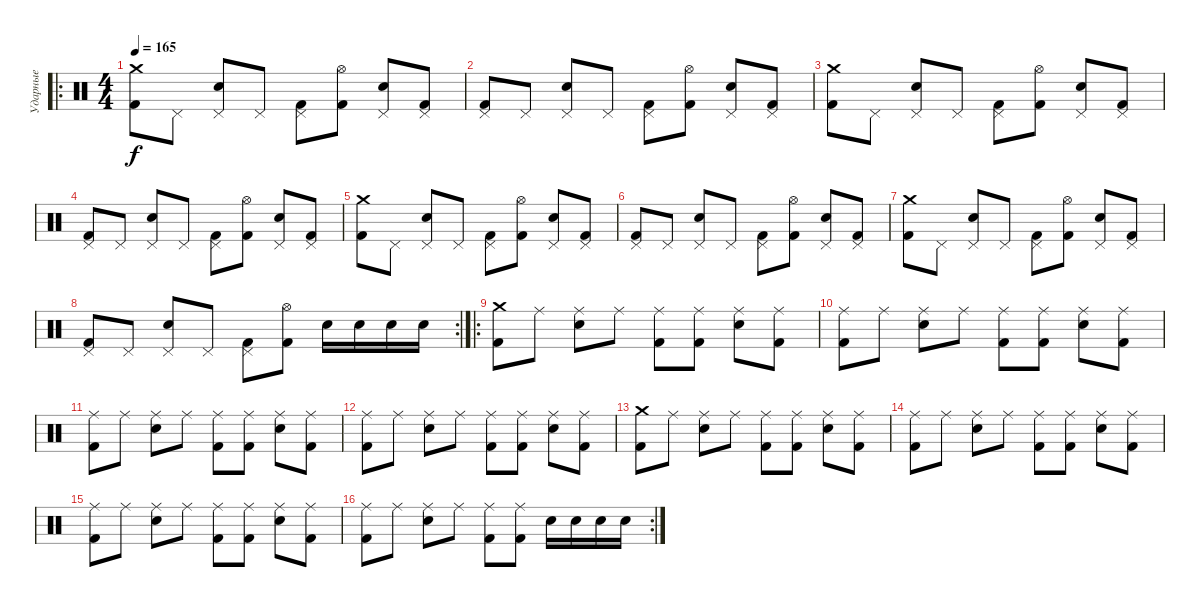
\track ("Ударные" "Ударные") {instrument percussion}
\staff {score}
\articulation defaults
\ro
\ts (4 4)
\tempo 165
\clef neutral
\ks c
("Crash medium (hit)" "Kick (hit) 2").8{dy f} "Pedal Hi-Hat (hit)".8 ("Pedal Hi-Hat (hit)" "Electric Snare (hit)").8 "Pedal Hi-Hat (hit)".8 ("Pedal Hi-Hat (hit)" "Kick (hit) 2").8 ("Hi-Hat (open)" "Kick (hit) 2").8 ("Pedal Hi-Hat (hit)" "Electric Snare (hit)").8 ("Pedal Hi-Hat (hit)" "Kick (hit) 2").8 |
("Pedal Hi-Hat (hit)" "Kick (hit) 2").8 "Pedal Hi-Hat (hit)".8 ("Pedal Hi-Hat (hit)" "Electric Snare (hit)").8 "Pedal Hi-Hat (hit)".8 ("Pedal Hi-Hat (hit)" "Kick (hit) 2").8 ("Hi-Hat (open)" "Kick (hit) 2").8 ("Pedal Hi-Hat (hit)" "Electric Snare (hit)").8 ("Pedal Hi-Hat (hit)" "Kick (hit) 2").8 |
("Crash medium (hit)" "Kick (hit) 2").8 "Pedal Hi-Hat (hit)".8 ("Pedal Hi-Hat (hit)" "Electric Snare (hit)").8 "Pedal Hi-Hat (hit)".8 ("Pedal Hi-Hat (hit)" "Kick (hit) 2").8 ("Hi-Hat (open)" "Kick (hit) 2").8 ("Pedal Hi-Hat (hit)" "Electric Snare (hit)").8 ("Pedal Hi-Hat (hit)" "Kick (hit) 2").8 |
("Pedal Hi-Hat (hit)" "Kick (hit) 2").8 "Pedal Hi-Hat (hit)".8 ("Pedal Hi-Hat (hit)" "Electric Snare (hit)").8 "Pedal Hi-Hat (hit)".8 ("Pedal Hi-Hat (hit)" "Kick (hit) 2").8 ("Hi-Hat (open)" "Kick (hit) 2").8 ("Pedal Hi-Hat (hit)" "Electric Snare (hit)").8 ("Pedal Hi-Hat (hit)" "Kick (hit) 2").8 |
("Crash medium (hit)" "Kick (hit) 2").8 "Pedal Hi-Hat (hit)".8 ("Pedal Hi-Hat (hit)" "Electric Snare (hit)").8 "Pedal Hi-Hat (hit)".8 ("Pedal Hi-Hat (hit)" "Kick (hit) 2").8 ("Hi-Hat (open)" "Kick (hit) 2").8 ("Pedal Hi-Hat (hit)" "Electric Snare (hit)").8 ("Pedal Hi-Hat (hit)" "Kick (hit) 2").8 |
("Pedal Hi-Hat (hit)" "Kick (hit) 2").8 "Pedal Hi-Hat (hit)".8 ("Pedal Hi-Hat (hit)" "Electric Snare (hit)").8 "Pedal Hi-Hat (hit)".8 ("Pedal Hi-Hat (hit)" "Kick (hit) 2").8 ("Hi-Hat (open)" "Kick (hit) 2").8 ("Pedal Hi-Hat (hit)" "Electric Snare (hit)").8 ("Pedal Hi-Hat (hit)" "Kick (hit) 2").8 |
("Crash medium (hit)" "Kick (hit) 2").8 "Pedal Hi-Hat (hit)".8 ("Pedal Hi-Hat (hit)" "Electric Snare (hit)").8 "Pedal Hi-Hat (hit)".8 ("Pedal Hi-Hat (hit)" "Kick (hit) 2").8 ("Hi-Hat (open)" "Kick (hit) 2").8 ("Pedal Hi-Hat (hit)" "Electric Snare (hit)").8 ("Pedal Hi-Hat (hit)" "Kick (hit) 2").8 |
\rc 2
("Pedal Hi-Hat (hit)" "Kick (hit) 2").8 "Pedal Hi-Hat (hit)".8 ("Pedal Hi-Hat (hit)" "Electric Snare (hit)").8 "Pedal Hi-Hat (hit)".8 ("Pedal Hi-Hat (hit)" "Kick (hit) 2").8 ("Hi-Hat (open)" "Kick (hit) 2").8 "Electric Snare (hit)".16 "Electric Snare (hit)".16 "Electric Snare (hit)".16 "Electric Snare (hit)".16 |
\ro
("Crash medium (hit)" "Kick (hit) 2").8 "Ride (middle)".8 ("Ride (middle)" "Electric Snare (hit)").8 "Ride (middle)".8 ("Ride (middle)" "Kick (hit) 2").8 ("Ride (middle)" "Kick (hit) 2").8 ("Ride (middle)" "Electric Snare (hit)").8 ("Ride (middle)" "Kick (hit) 2").8 |
("Ride (middle)" "Kick (hit) 2").8 "Ride (middle)".8 ("Ride (middle)" "Electric Snare (hit)").8 "Ride (middle)".8 ("Ride (middle)" "Kick (hit) 2").8 ("Ride (middle)" "Kick (hit) 2").8 ("Ride (middle)" "Electric Snare (hit)").8 ("Ride (middle)" "Kick (hit) 2").8 |
("Ride (middle)" "Kick (hit) 2").8 "Ride (middle)".8 ("Ride (middle)" "Electric Snare (hit)").8 "Ride (middle)".8 ("Ride (middle)" "Kick (hit) 2").8 ("Ride (middle)" "Kick (hit) 2").8 ("Ride (middle)" "Electric Snare (hit)").8 ("Ride (middle)" "Kick (hit) 2").8 |
("Ride (middle)" "Kick (hit) 2").8 "Ride (middle)".8 ("Ride (middle)" "Electric Snare (hit)").8 "Ride (middle)".8 ("Ride (middle)" "Kick (hit) 2").8 ("Ride (middle)" "Kick (hit) 2").8 ("Ride (middle)" "Electric Snare (hit)").8 ("Ride (middle)" "Kick (hit) 2").8 |
("Crash medium (hit)" "Kick (hit) 2").8 "Ride (middle)".8 ("Ride (middle)" "Electric Snare (hit)").8 "Ride (middle)".8 ("Ride (middle)" "Kick (hit) 2").8 ("Ride (middle)" "Kick (hit) 2").8 ("Ride (middle)" "Electric Snare (hit)").8 ("Ride (middle)" "Kick (hit) 2").8 |
("Ride (middle)" "Kick (hit) 2").8 "Ride (middle)".8 ("Ride (middle)" "Electric Snare (hit)").8 "Ride (middle)".8 ("Ride (middle)" "Kick (hit) 2").8 ("Ride (middle)" "Kick (hit) 2").8 ("Ride (middle)" "Electric Snare (hit)").8 ("Ride (middle)" "Kick (hit) 2").8 |
("Ride (middle)" "Kick (hit) 2").8 "Ride (middle)".8 ("Ride (middle)" "Electric Snare (hit)").8 "Ride (middle)".8 ("Ride (middle)" "Kick (hit) 2").8 ("Ride (middle)" "Kick (hit) 2").8 ("Ride (middle)" "Electric Snare (hit)").8 ("Ride (middle)" "Kick (hit) 2").8 |
\rc 2
("Ride (middle)" "Kick (hit) 2").8 "Ride (middle)".8 ("Ride (middle)" "Electric Snare (hit)").8 "Ride (middle)".8 ("Ride (middle)" "Kick (hit) 2").8 ("Ride (middle)" "Kick (hit) 2").8 "Electric Snare (hit)".16 "Electric Snare (hit)".16 "Electric Snare (hit)".16 "Electric Snare (hit)".16
